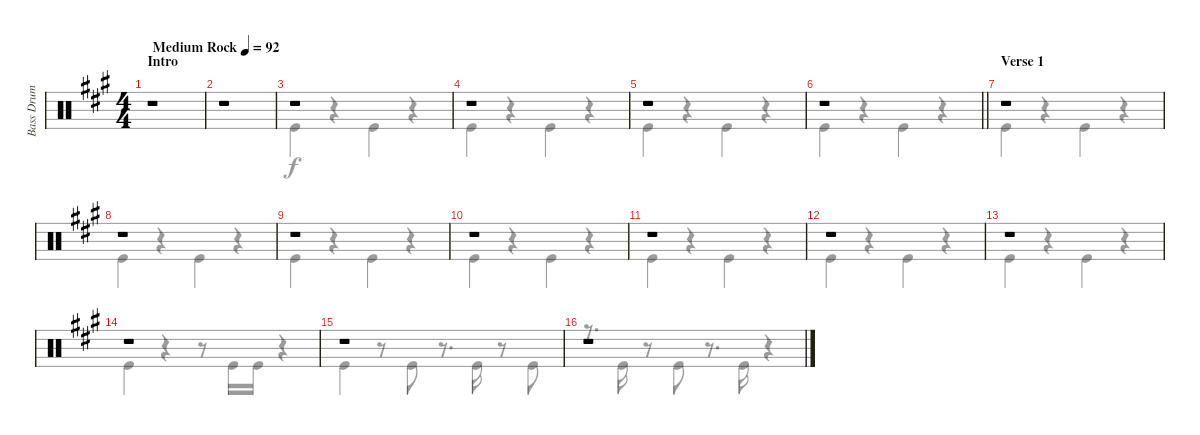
\track ("Bass Drum" "Bass Drum") {instrument percussion}
\staff {score}
\articulation defaults
\voice
\ts (4 4)
\section ("" "Intro")
\tempo (92 "Medium Rock")
\clef neutral
\ks f#minor
r.1{dy f} |
r.1 |
r.1 |
r.1 |
r.1 |
\barLineRight lightlight
r.1 |
\section ("" "Verse 1")
r.1 |
r.1 |
r.1 |
r.1 |
r.1 |
r.1 |
r.1 |
r.1 |
r.1 |
r.1
\voice
\clef neutral
\ottava regular
\simile none
\ks f#minor
|
|
"Kick (hit)".4 r.4 "Kick (hit)".4 r.4 |
"Kick (hit)".4 r.4 "Kick (hit)".4 r.4 |
"Kick (hit)".4 r.4 "Kick (hit)".4 r.4 |
\barLineRight lightlight "Kick (hit)".4
r.4 "Kick (hit)".4 r.4 |
"Kick (hit)".4 r.4 "Kick (hit)".4 r.4 |
"Kick (hit)".4 r.4 "Kick (hit)".4 r.4 |
"Kick (hit)".4 r.4 "Kick (hit)".4 r.4 |
"Kick (hit)".4 r.4 "Kick (hit)".4 r.4 |
"Kick (hit)".4 r.4 "Kick (hit)".4 r.4 |
"Kick (hit)".4 r.4 "Kick (hit)".4 r.4 |
"Kick (hit)".4 r.4 "Kick (hit)".4 r.4 |
"Kick (hit)".4 r.4 r.8 "Kick (hit)".16 "Kick (hit)".16 r.4 |
"Kick (hit)".4 r.8 "Kick (hit)".8 r.8{d} "Kick (hit)".16 r.8 "Kick (hit)".8 |
r.8{d} "Kick (hit)".16 r.8 "Kick (hit)".8 r.8{d} "Kick (hit)".16 r.4
